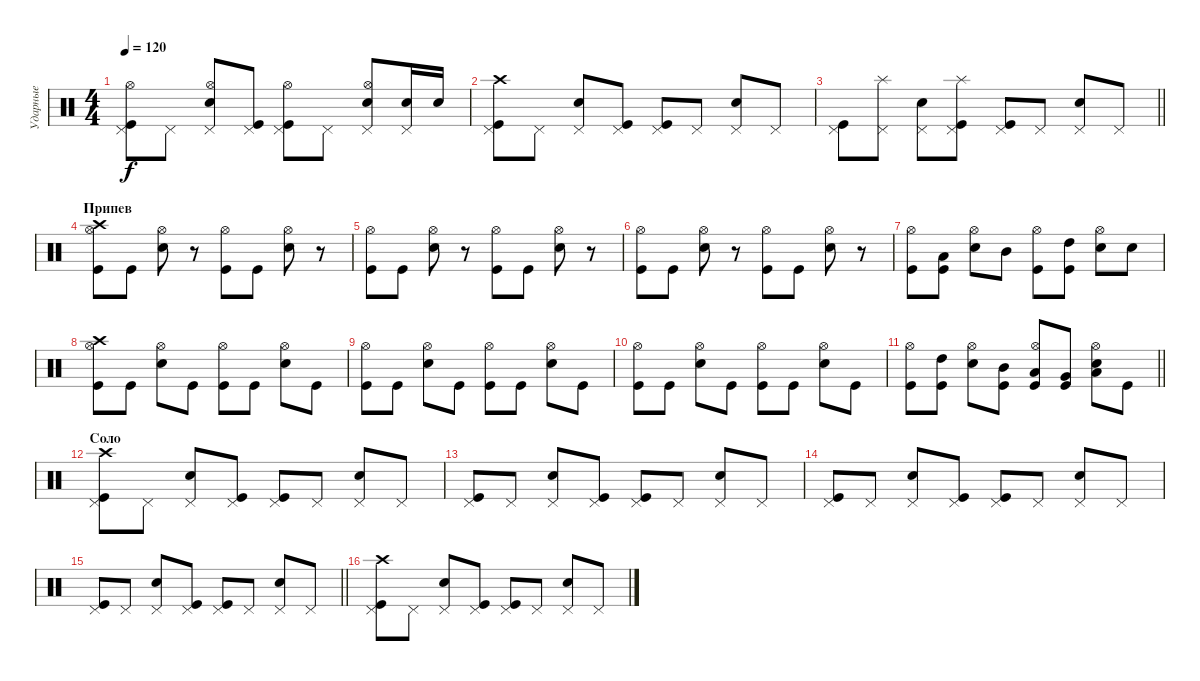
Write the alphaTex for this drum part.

\track ("Ударные" "Ударные") {instrument percussion}
\staff {score}
\articulation defaults
\ts (4 4)
\tempo 120
\clef neutral
\ks c
("Pedal Hi-Hat (hit)" "Kick (hit)" "Hi-Hat (open)").8{dy f} "Pedal Hi-Hat (hit)".8 ("Pedal Hi-Hat (hit)" "Snare (hit) 2" "Hi-Hat (open)").8 ("Pedal Hi-Hat (hit)" "Kick (hit)").8 ("Pedal Hi-Hat (hit)" "Kick (hit)" "Hi-Hat (open)").8 "Pedal Hi-Hat (hit)".8 ("Pedal Hi-Hat (hit)" "Snare (hit) 2" "Hi-Hat (open)").8 ("Pedal Hi-Hat (hit)" "Snare (hit) 2").16 "Snare (hit) 2".16 |
("Pedal Hi-Hat (hit)" "Kick (hit)" "Crash high (hit)").8 "Pedal Hi-Hat (hit)".8 ("Pedal Hi-Hat (hit)" "Snare (hit) 2").8 ("Pedal Hi-Hat (hit)" "Kick (hit)").8 ("Pedal Hi-Hat (hit)" "Kick (hit)").8 "Pedal Hi-Hat (hit)".8 ("Pedal Hi-Hat (hit)" "Snare (hit) 2").8 "Pedal Hi-Hat (hit)".8 |
\barLineRight lightlight
("Pedal Hi-Hat (hit)" "Kick (hit)").8 ("Pedal Hi-Hat (hit)" "Splash (hit)").8 ("Pedal Hi-Hat (hit)" "Snare (hit) 2").8 ("Pedal Hi-Hat (hit)" "Kick (hit)" "Splash (hit)").8 ("Pedal Hi-Hat (hit)" "Kick (hit)").8 "Pedal Hi-Hat (hit)".8 ("Pedal Hi-Hat (hit)" "Snare (hit) 2").8 "Pedal Hi-Hat (hit)".8 |
\section ("" "Припев")
("Kick (hit)" "Hi-Hat (open)" "Crash high (hit)").8 "Kick (hit)".8 ("Snare (hit) 2" "Hi-Hat (open)").8 r.8 ("Kick (hit)" "Hi-Hat (open)").8 "Kick (hit)".8 ("Snare (hit) 2" "Hi-Hat (open)").8 r.8 |
("Kick (hit)" "Hi-Hat (open)").8 "Kick (hit)".8 ("Snare (hit) 2" "Hi-Hat (open)").8 r.8 ("Kick (hit)" "Hi-Hat (open)").8 "Kick (hit)".8 ("Snare (hit) 2" "Hi-Hat (open)").8 r.8 |
("Kick (hit)" "Hi-Hat (open)").8 "Kick (hit)".8 ("Snare (hit) 2" "Hi-Hat (open)").8 r.8 ("Kick (hit)" "Hi-Hat (open)").8 "Kick (hit)".8 ("Snare (hit) 2" "Hi-Hat (open)").8 r.8 |
("Kick (hit)" "Hi-Hat (open)").8 ("Kick (hit)" "Low Tom (hit)").8 ("Snare (hit) 2" "Hi-Hat (open)").8 "Mid Tom (hit)".8 ("Kick (hit)" "Hi-Hat (open)").8 ("Kick (hit)" "High Tom (hit)").8 ("Snare (hit) 2" "Hi-Hat (open)").8 "Snare (hit) 2".8 |
("Kick (hit)" "Hi-Hat (open)" "Crash high (hit)").8 "Kick (hit)".8 ("Snare (hit) 2" "Hi-Hat (open)").8 "Kick (hit)".8 ("Kick (hit)" "Hi-Hat (open)").8 "Kick (hit)".8 ("Snare (hit) 2" "Hi-Hat (open)").8 "Kick (hit)".8 |
("Kick (hit)" "Hi-Hat (open)").8 "Kick (hit)".8 ("Snare (hit) 2" "Hi-Hat (open)").8 "Kick (hit)".8 ("Kick (hit)" "Hi-Hat (open)").8 "Kick (hit)".8 ("Snare (hit) 2" "Hi-Hat (open)").8 "Kick (hit)".8 |
("Kick (hit)" "Hi-Hat (open)").8 "Kick (hit)".8 ("Snare (hit) 2" "Hi-Hat (open)").8 "Kick (hit)".8 ("Kick (hit)" "Hi-Hat (open)").8 "Kick (hit)".8 ("Snare (hit) 2" "Hi-Hat (open)").8 "Kick (hit)".8 |
\barLineRight lightlight
("Kick (hit)" "Hi-Hat (open)").8 ("Kick (hit)" "High Tom (hit)").8 ("Snare (hit) 2" "Hi-Hat (open)").8 ("Kick (hit)" "Mid Tom (hit)").8 ("Kick (hit)" "Hi-Hat (open)" "Low Tom (hit)").8 ("Kick (hit)" "Very Low Tom (hit)").8 ("Snare (hit) 2" "Hi-Hat (open)" "Low Floor Tom (hit)").8 "Kick (hit)".8 |
\section ("" "Соло")
("Pedal Hi-Hat (hit)" "Kick (hit)" "Crash high (hit)").8 "Pedal Hi-Hat (hit)".8 ("Pedal Hi-Hat (hit)" "Snare (hit) 2").8 ("Pedal Hi-Hat (hit)" "Kick (hit)").8 ("Pedal Hi-Hat (hit)" "Kick (hit)").8 "Pedal Hi-Hat (hit)".8 ("Pedal Hi-Hat (hit)" "Snare (hit) 2").8 "Pedal Hi-Hat (hit)".8 |
("Pedal Hi-Hat (hit)" "Kick (hit)").8 "Pedal Hi-Hat (hit)".8 ("Pedal Hi-Hat (hit)" "Snare (hit) 2").8 ("Pedal Hi-Hat (hit)" "Kick (hit)").8 ("Pedal Hi-Hat (hit)" "Kick (hit)").8 "Pedal Hi-Hat (hit)".8 ("Pedal Hi-Hat (hit)" "Snare (hit) 2").8 "Pedal Hi-Hat (hit)".8 |
("Pedal Hi-Hat (hit)" "Kick (hit)").8 "Pedal Hi-Hat (hit)".8 ("Pedal Hi-Hat (hit)" "Snare (hit) 2").8 ("Pedal Hi-Hat (hit)" "Kick (hit)").8 ("Pedal Hi-Hat (hit)" "Kick (hit)").8 "Pedal Hi-Hat (hit)".8 ("Pedal Hi-Hat (hit)" "Snare (hit) 2").8 "Pedal Hi-Hat (hit)".8 |
\barLineRight lightlight
("Pedal Hi-Hat (hit)" "Kick (hit)").8 "Pedal Hi-Hat (hit)".8 ("Pedal Hi-Hat (hit)" "Snare (hit) 2").8 ("Pedal Hi-Hat (hit)" "Kick (hit)").8 ("Pedal Hi-Hat (hit)" "Kick (hit)").8 "Pedal Hi-Hat (hit)".8 ("Pedal Hi-Hat (hit)" "Snare (hit) 2").8 "Pedal Hi-Hat (hit)".8 |
("Pedal Hi-Hat (hit)" "Kick (hit)" "Crash high (hit)").8 "Pedal Hi-Hat (hit)".8 ("Pedal Hi-Hat (hit)" "Snare (hit) 2").8 ("Pedal Hi-Hat (hit)" "Kick (hit)").8 ("Pedal Hi-Hat (hit)" "Kick (hit)").8 "Pedal Hi-Hat (hit)".8 ("Pedal Hi-Hat (hit)" "Snare (hit) 2").8 "Pedal Hi-Hat (hit)".8
